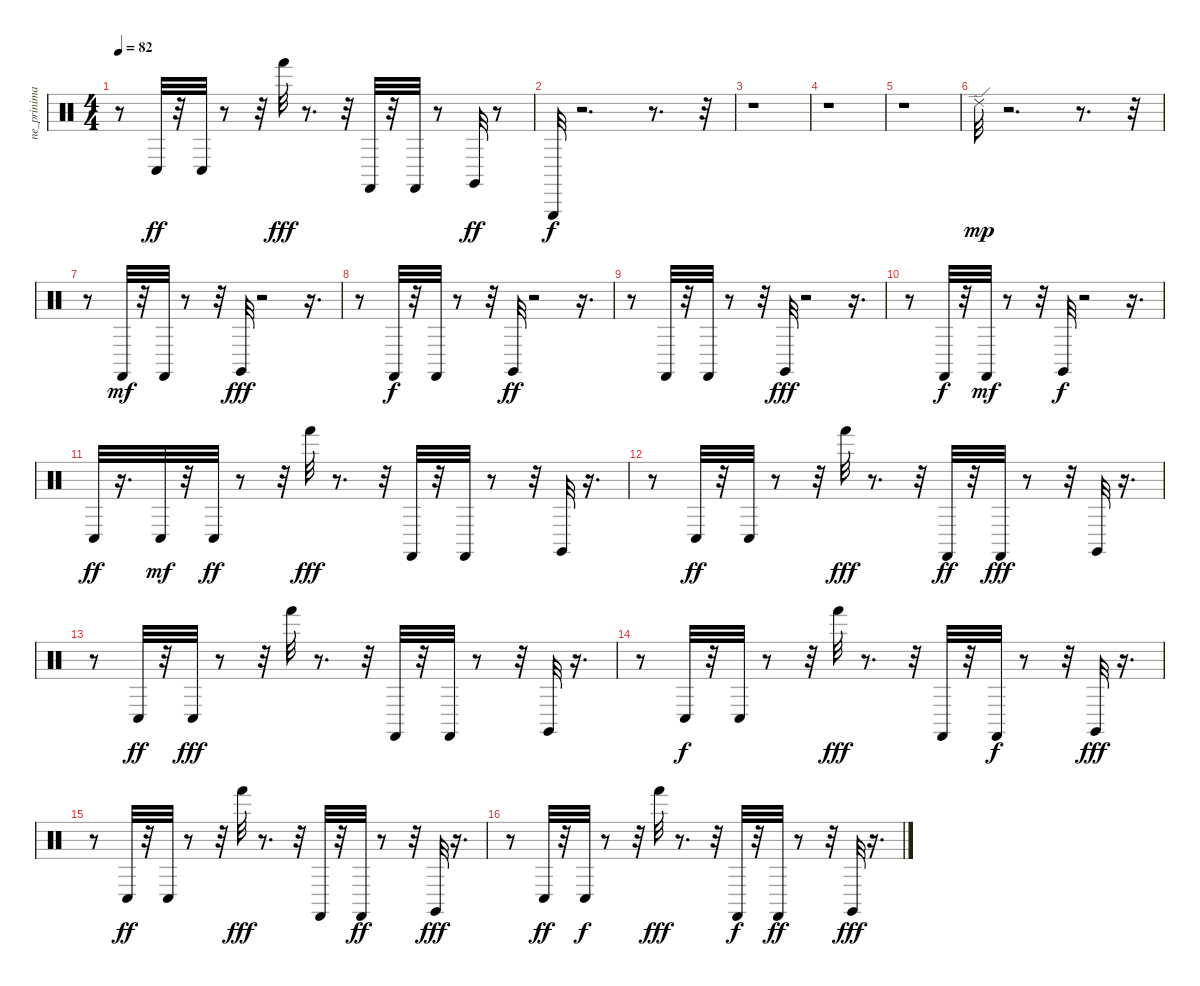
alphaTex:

\track ("ne_prinimai" "ne_prinima") {instrument percussion}
\staff {score}
\articulation defaults
\ts (4 4)
\tempo 82
\clef neutral
\ks c
r.8{dy fff} "Conga low (hit)".32{dy ff} r.32 "Conga low (hit)".32 r.8 r.32 "Hand (hit)".32{dy fff} r.8{d} r.32 "Castanets (hit)".32 r.32 "Castanets (hit)".32 r.8 "Claves (hit)".32{dy ff} r.8 |
"Triangle (hit)".32{dy f} r.2{d} r.8{d} r.32 |
r.1 |
r.1 |
r.1 |
"Ride (edge) 2".32{dy mp} r.2{d} r.8{d} r.32 |
r.8 "Castanets (hit)".32{dy mf} r.32 "Castanets (hit)".32 r.8 r.32 "Claves (hit)".32{dy fff} r.2 r.16{d} |
r.8 "Castanets (hit)".32{dy f} r.32 "Castanets (hit)".32 r.8 r.32 "Claves (hit)".32{dy ff} r.2 r.16{d} |
r.8 "Castanets (hit)".32 r.32 "Castanets (hit)".32 r.8 r.32 "Claves (hit)".32{dy fff} r.2 r.16{d} |
r.8 "Castanets (hit)".32{dy f} r.32 "Castanets (hit)".32{dy mf} r.8 r.32 "Claves (hit)".32{dy f} r.2 r.16{d} |
"Conga low (hit)".32{dy ff} r.16{d} "Conga low (hit)".32{dy mf} r.32 "Conga low (hit)".32{dy ff} r.8 r.32 "Hand (hit)".32{dy fff} r.8{d} r.32 "Castanets (hit)".32 r.32 "Castanets (hit)".32 r.8 r.32 "Claves (hit)".32 r.16{d} |
r.8 "Conga low (hit)".32{dy ff} r.32 "Conga low (hit)".32 r.8 r.32 "Hand (hit)".32{dy fff} r.8{d} r.32 "Castanets (hit)".32{dy ff} r.32 "Castanets (hit)".32{dy fff} r.8 r.32 "Claves (hit)".32 r.16{d} |
r.8 "Conga low (hit)".32{dy ff} r.32 "Conga low (hit)".32{dy fff} r.8 r.32 "Hand (hit)".32 r.8{d} r.32 "Castanets (hit)".32 r.32 "Castanets (hit)".32 r.8 r.32 "Claves (hit)".32 r.16{d} |
r.8 "Conga low (hit)".32{dy f} r.32 "Conga low (hit)".32 r.8 r.32 "Hand (hit)".32{dy fff} r.8{d} r.32 "Castanets (hit)".32 r.32 "Castanets (hit)".32{dy f} r.8 r.32 "Claves (hit)".32{dy fff} r.16{d} |
r.8 "Conga low (hit)".32{dy ff} r.32 "Conga low (hit)".32 r.8 r.32 "Hand (hit)".32{dy fff} r.8{d} r.32 "Castanets (hit)".32 r.32 "Castanets (hit)".32{dy ff} r.8 r.32 "Claves (hit)".32{dy fff} r.16{d} |
r.8 "Conga low (hit)".32{dy ff} r.32 "Conga low (hit)".32{dy f} r.8 r.32 "Hand (hit)".32{dy fff} r.8{d} r.32 "Castanets (hit)".32{dy f} r.32 "Castanets (hit)".32{dy ff} r.8 r.32 "Claves (hit)".32{dy fff} r.16{d}
